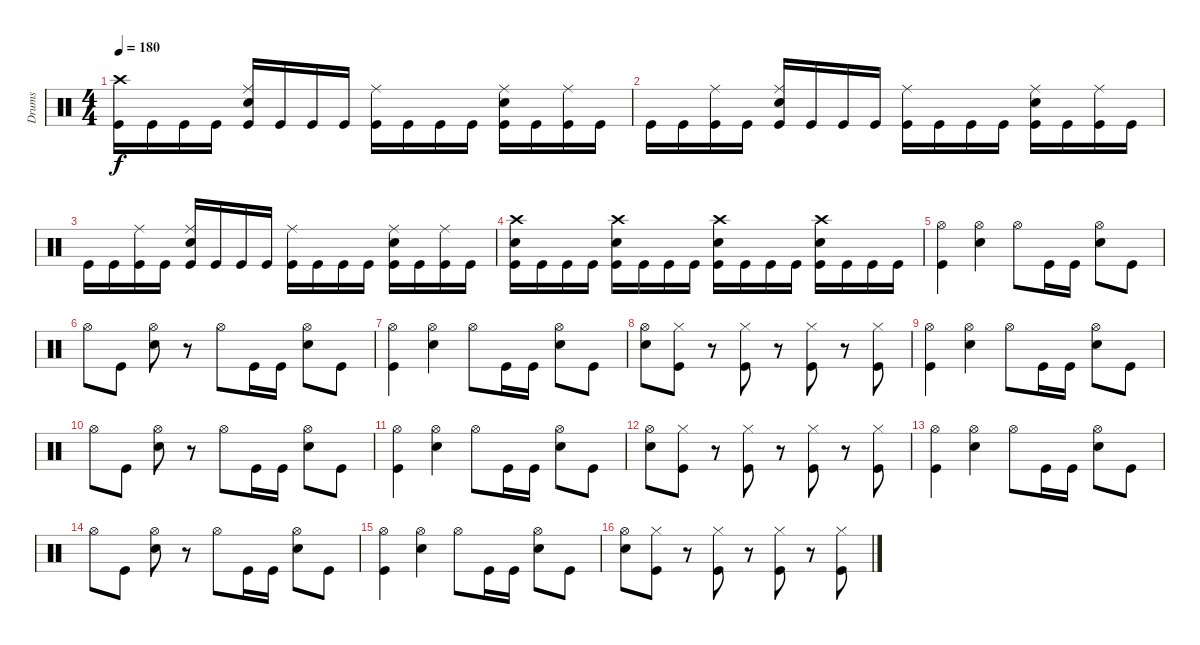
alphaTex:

\track ("Drums" "Drums") {instrument percussion}
\staff {score}
\articulation defaults
\ts (4 4)
\tempo 180
\clef neutral
\ks c
("Crash high (hit)" "Kick (hit)").16{dy f} "Kick (hit)".16 "Kick (hit)".16 "Kick (hit)".16 ("Ride (middle)" "Snare (hit) 2" "Kick (hit)").16 "Kick (hit)".16 "Kick (hit)".16 "Kick (hit)".16 ("Ride (middle)" "Kick (hit)").16 "Kick (hit)".16 "Kick (hit)".16 "Kick (hit)".16 ("Ride (middle)" "Snare (hit) 2" "Kick (hit)").16 "Kick (hit)".16 ("Ride (middle)" "Kick (hit)").16 "Kick (hit)".16 |
"Kick (hit)".16 "Kick (hit)".16 ("Ride (middle)" "Kick (hit)").16 "Kick (hit)".16 ("Ride (middle)" "Snare (hit) 2" "Kick (hit)").16 "Kick (hit)".16 "Kick (hit)".16 "Kick (hit)".16 ("Ride (middle)" "Kick (hit)").16 "Kick (hit)".16 "Kick (hit)".16 "Kick (hit)".16 ("Ride (middle)" "Snare (hit) 2" "Kick (hit)").16 "Kick (hit)".16 ("Ride (middle)" "Kick (hit)").16 "Kick (hit)".16 |
"Kick (hit)".16 "Kick (hit)".16 ("Ride (middle)" "Kick (hit)").16 "Kick (hit)".16 ("Ride (middle)" "Snare (hit) 2" "Kick (hit)").16 "Kick (hit)".16 "Kick (hit)".16 "Kick (hit)".16 ("Ride (middle)" "Kick (hit)").16 "Kick (hit)".16 "Kick (hit)".16 "Kick (hit)".16 ("Ride (middle)" "Snare (hit) 2" "Kick (hit)").16 "Kick (hit)".16 ("Ride (middle)" "Kick (hit)").16 "Kick (hit)".16 |
("Crash high (hit)" "Snare (hit) 2" "Kick (hit)").16 "Kick (hit)".16 "Kick (hit)".16 "Kick (hit)".16 ("Crash high (hit)" "Snare (hit) 2" "Kick (hit)").16 "Kick (hit)".16 "Kick (hit)".16 "Kick (hit)".16 ("Crash high (hit)" "Snare (hit) 2" "Kick (hit)").16 "Kick (hit)".16 "Kick (hit)".16 "Kick (hit)".16 ("Crash high (hit)" "Snare (hit) 2" "Kick (hit)").16 "Kick (hit)".16 "Kick (hit)".16 "Kick (hit)".16 |
("Hi-Hat (open)" "Kick (hit)").4 ("Hi-Hat (open)" "Snare (hit) 2").4 "Hi-Hat (open)".8 "Kick (hit)".16 "Kick (hit)".16 ("Hi-Hat (open)" "Snare (hit) 2").8 "Kick (hit)".8 |
"Hi-Hat (open)".8 "Kick (hit)".8 ("Hi-Hat (open)" "Snare (hit) 2").8 r.8 "Hi-Hat (open)".8 "Kick (hit)".16 "Kick (hit)".16 ("Hi-Hat (open)" "Snare (hit) 2").8 "Kick (hit)".8 |
("Hi-Hat (open)" "Kick (hit)").4 ("Hi-Hat (open)" "Snare (hit) 2").4 "Hi-Hat (open)".8 "Kick (hit)".16 "Kick (hit)".16 ("Hi-Hat (open)" "Snare (hit) 2").8 "Kick (hit)".8 |
("Hi-Hat (open)" "Snare (hit) 2").8 ("Hi-Hat (closed)" "Kick (hit)").8 r.8 ("Hi-Hat (closed)" "Kick (hit)").8 r.8 ("Hi-Hat (closed)" "Kick (hit)").8 r.8 ("Hi-Hat (closed)" "Kick (hit)").8 |
("Hi-Hat (open)" "Kick (hit)").4 ("Hi-Hat (open)" "Snare (hit) 2").4 "Hi-Hat (open)".8 "Kick (hit)".16 "Kick (hit)".16 ("Hi-Hat (open)" "Snare (hit) 2").8 "Kick (hit)".8 |
"Hi-Hat (open)".8 "Kick (hit)".8 ("Hi-Hat (open)" "Snare (hit) 2").8 r.8 "Hi-Hat (open)".8 "Kick (hit)".16 "Kick (hit)".16 ("Hi-Hat (open)" "Snare (hit) 2").8 "Kick (hit)".8 |
("Hi-Hat (open)" "Kick (hit)").4 ("Hi-Hat (open)" "Snare (hit) 2").4 "Hi-Hat (open)".8 "Kick (hit)".16 "Kick (hit)".16 ("Hi-Hat (open)" "Snare (hit) 2").8 "Kick (hit)".8 |
("Hi-Hat (open)" "Snare (hit) 2").8 ("Hi-Hat (closed)" "Kick (hit)").8 r.8 ("Hi-Hat (closed)" "Kick (hit)").8 r.8 ("Hi-Hat (closed)" "Kick (hit)").8 r.8 ("Hi-Hat (closed)" "Kick (hit)").8 |
("Hi-Hat (open)" "Kick (hit)").4 ("Hi-Hat (open)" "Snare (hit) 2").4 "Hi-Hat (open)".8 "Kick (hit)".16 "Kick (hit)".16 ("Hi-Hat (open)" "Snare (hit) 2").8 "Kick (hit)".8 |
"Hi-Hat (open)".8 "Kick (hit)".8 ("Hi-Hat (open)" "Snare (hit) 2").8 r.8 "Hi-Hat (open)".8 "Kick (hit)".16 "Kick (hit)".16 ("Hi-Hat (open)" "Snare (hit) 2").8 "Kick (hit)".8 |
("Hi-Hat (open)" "Kick (hit)").4 ("Hi-Hat (open)" "Snare (hit) 2").4 "Hi-Hat (open)".8 "Kick (hit)".16 "Kick (hit)".16 ("Hi-Hat (open)" "Snare (hit) 2").8 "Kick (hit)".8 |
("Hi-Hat (open)" "Snare (hit) 2").8 ("Hi-Hat (closed)" "Kick (hit)").8 r.8 ("Hi-Hat (closed)" "Kick (hit)").8 r.8 ("Hi-Hat (closed)" "Kick (hit)").8 r.8 ("Hi-Hat (closed)" "Kick (hit)").8
